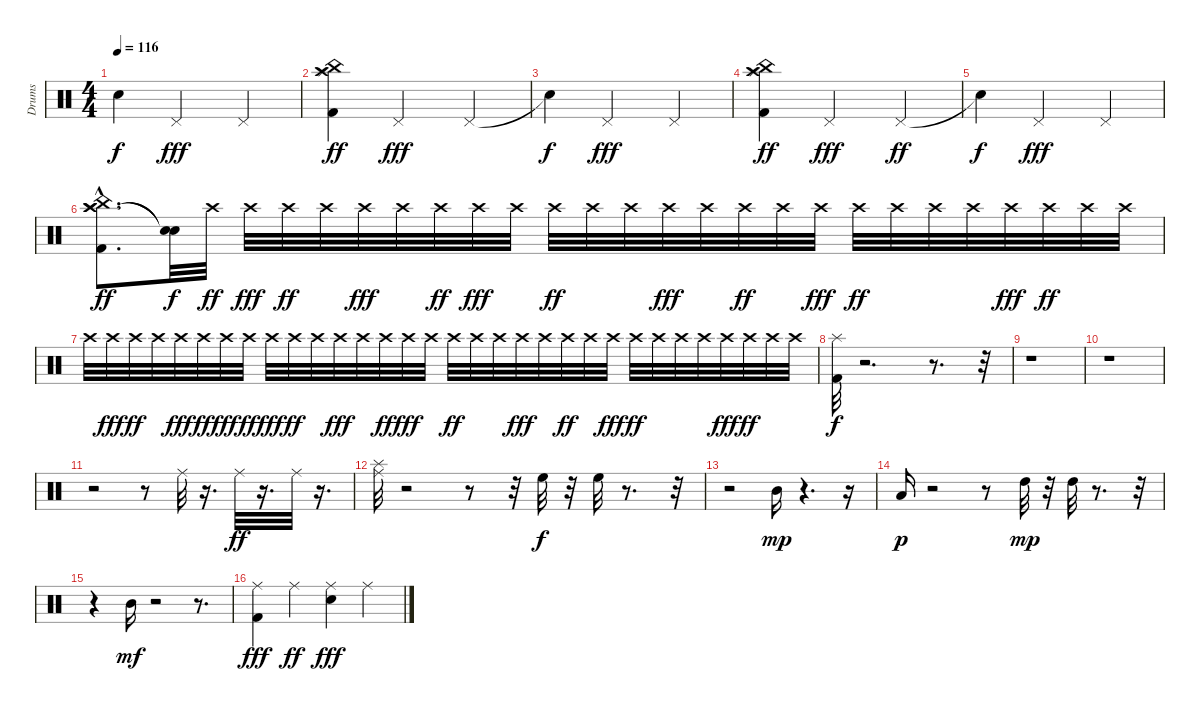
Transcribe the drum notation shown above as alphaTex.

\track ("Drums" "Drums") {instrument percussion}
\staff {score}
\articulation defaults
\ts (4 4)
\tempo 116
\clef neutral
\ks c "Snare (hit)"{t}.4{dy f} "Pedal Hi-Hat (hit)".2{dy fff} "Pedal Hi-Hat (hit)".4
|
("Crash high (hit)" "Kick (hit) 2" "Splash (hit)" "China (hit)").4{dy ff} "Pedal Hi-Hat (hit)".2{dy fff} "Pedal Hi-Hat (hit)".4 |
"Snare (hit)"{t}.4{dy f} "Pedal Hi-Hat (hit)".2{dy fff} "Pedal Hi-Hat (hit)".4 |
("Crash high (hit)" "Kick (hit) 2" "Splash (hit)" "China (hit)").4{dy ff} "Pedal Hi-Hat (hit)".2{dy fff} "Pedal Hi-Hat (hit)".4{dy ff} |
"Snare (hit)"{t}.4{dy f} "Pedal Hi-Hat (hit)".2{dy fff} "Pedal Hi-Hat (hit)".4 |
("Crash high (hit)" "Crash high (hit)" "Kick (hit) 2"{hac} "China (hit)"{hac}).8{d dy ff} ("Snare (hit)"{t} "Snare (hit)"{t}).32{dy f} "Crash high (hit)".32{dy ff volume 0} "Crash high (hit)".32{dy fff volume 1} "Crash high (hit)".32{dy ff volume 1} "Crash high (hit)".32{volume 1} "Crash high (hit)".32{dy fff volume 2} "Crash high (hit)".32{volume 2} "Crash high (hit)".32{dy ff volume 2} "Crash high (hit)".32{dy fff volume 2} "Crash high (hit)".32{volume 3} "Crash high (hit)".32{dy ff volume 3} "Crash high (hit)".32{volume 3} "Crash high (hit)".32{volume 4} "Crash high (hit)".32{dy fff volume 4} "Crash high (hit)".32{volume 4} "Crash high (hit)".32{dy ff volume 4} "Crash high (hit)".32{volume 5} "Crash high (hit)".32{dy fff volume 5} "Crash high (hit)".32{dy ff volume 5} "Crash high (hit)".32{volume 6} "Crash high (hit)".32{volume 6} "Crash high (hit)".32{volume 6} "Crash high (hit)".32{dy fff volume 6} "Crash high (hit)".32{dy ff volume 7} "Crash high (hit)".32{volume 7} "Crash high (hit)".32{volume 7} |
"Crash high (hit)".32{volume 7} "Crash high (hit)".32{dy fff volume 8} "Crash high (hit)".32{dy ff volume 8} "Crash high (hit)".32{volume 8} "Crash high (hit)".32{dy fff volume 8} "Crash high (hit)".32{dy ff volume 9} "Crash high (hit)".32{dy fff volume 9} "Crash high (hit)".32{dy ff volume 9} "Crash high (hit)".32{dy fff volume 10} "Crash high (hit)".32{dy ff volume 10} "Crash high (hit)".32{volume 10} "Crash high (hit)".32{dy fff volume 10} "Crash high (hit)".32{volume 11} "Crash high (hit)".32{dy ff volume 11} "Crash high (hit)".32{dy fff volume 11} "Crash high (hit)".32{volume 12} "Crash high (hit)".32{dy ff volume 12} "Crash high (hit)".32{volume 12} "Crash high (hit)".32{volume 12} "Crash high (hit)".32{dy fff volume 13} "Crash high (hit)".32{volume 13} "Crash high (hit)".32{dy ff volume 13} "Crash high (hit)".32{volume 14} "Crash high (hit)".32{dy fff volume 14} "Crash high (hit)".32{dy ff volume 14} "Crash high (hit)".32{volume 14} "Crash high (hit)".32{volume 15} "Crash high (hit)".32{volume 15} "Crash high (hit)".32{dy fff volume 15} "Crash high (hit)".32{dy ff volume 15} "Crash high (hit)".32{volume 16} "Crash high (hit)".32{volume 16} |
("Kick (hit) 2" "Splash (hit)").32{dy f} r.2{d} r.8{d} r.32 |
r.1 |
r.1 |
r.2 r.8 "Ride (middle)".32 r.16{d} "Ride (middle)".32{dy ff} r.16{d} "Ride (middle)".32 r.16{d} |
("Splash (hit)" "Ride (middle)").32 r.2 r.8 r.32 "High Floor Tom (hit)".32{dy f} r.32 "High Floor Tom (hit)".32 r.8{d} r.32 |
r.2 "Mid Tom (hit)".16{dy mp} r.4{d} r.16 |
"Low Tom (hit)".16{dy p} r.2 r.8 "High Tom (hit)".32{dy mp} r.32 "High Tom (hit)".32 r.8{d} r.32 |
r.4 "Mid Tom (hit)".16{dy mf} r.2 r.8{d} |
("Kick (hit) 2" "Ride (middle)").4{dy fff} "Ride (middle)".4{dy ff} ("Snare (hit) 2" "Ride (middle)").4{dy fff} "Ride (middle)".4
